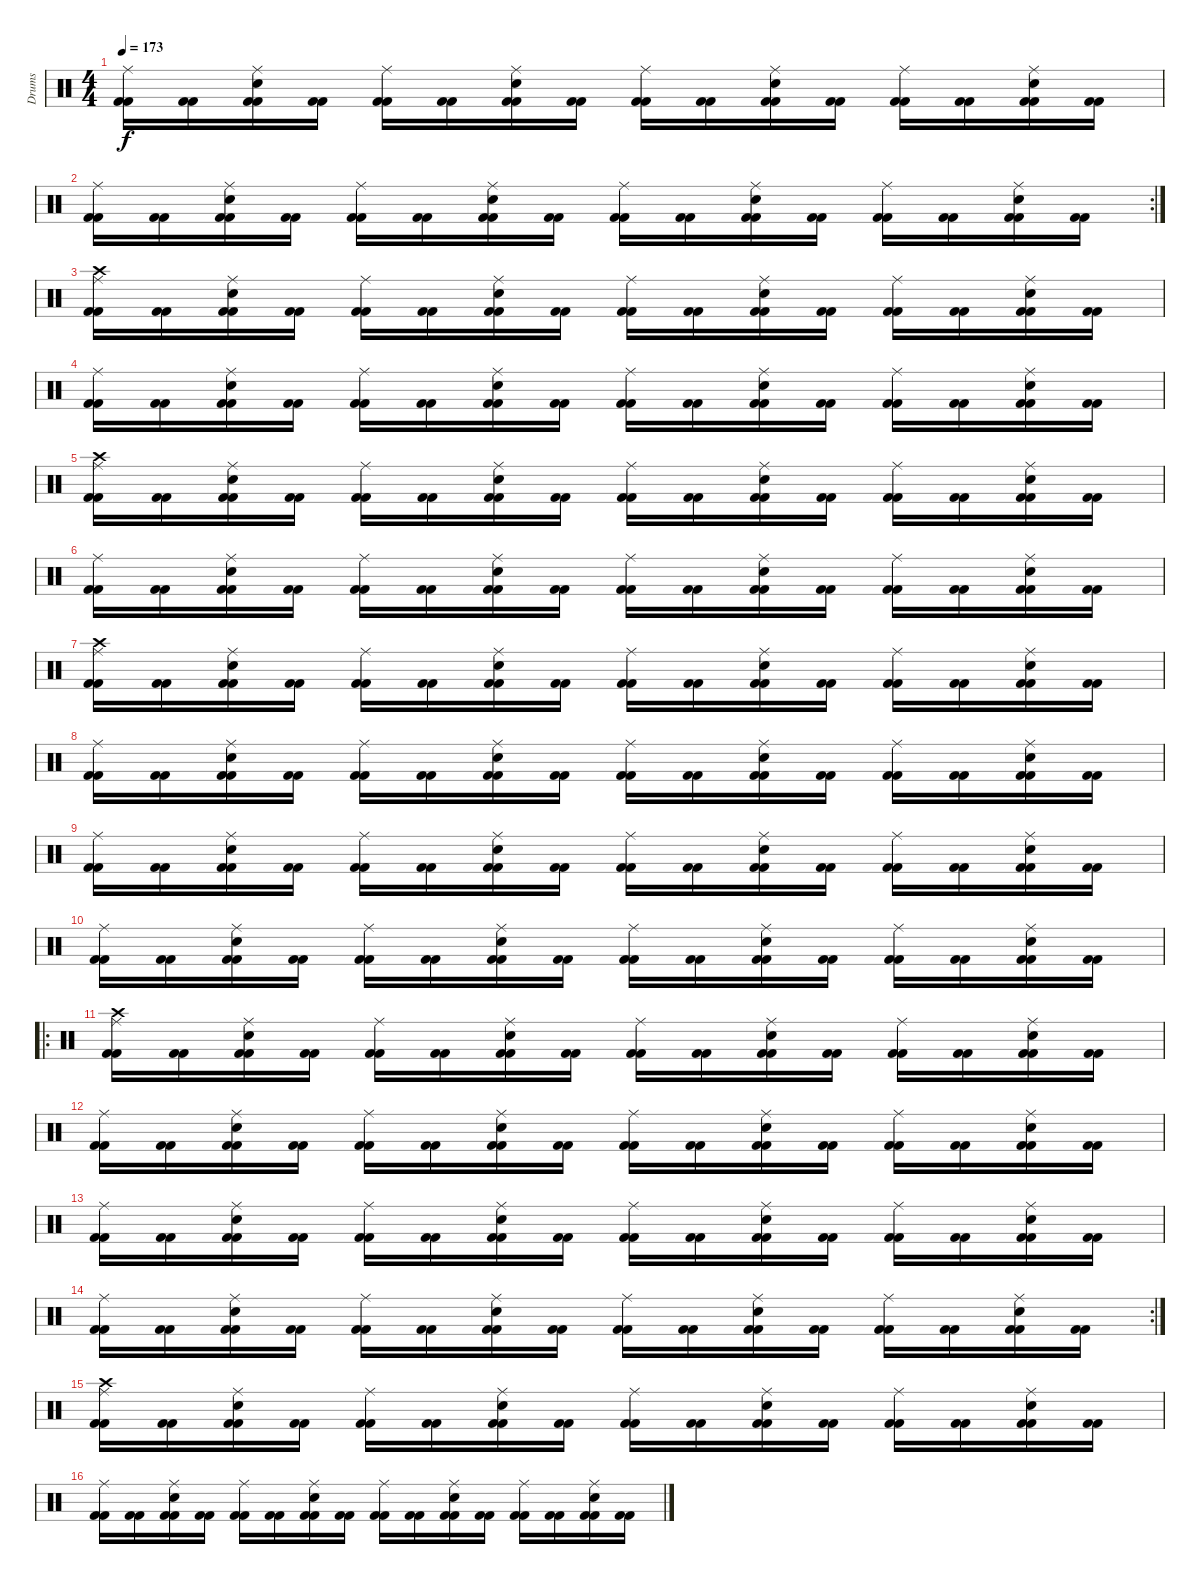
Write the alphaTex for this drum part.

\track ("Drums" "Drums") {instrument percussion}
\staff {score}
\articulation defaults
\ts (4 4)
\tempo 173
\clef neutral
\ks c
("Kick (hit) 2" "Kick (hit) 2" "Ride (middle)").16{dy f} ("Kick (hit) 2" "Kick (hit) 2").16 ("Kick (hit) 2" "Kick (hit) 2" "Ride (middle)" "Electric Snare (hit)").16 ("Kick (hit) 2" "Kick (hit) 2").16 ("Kick (hit) 2" "Kick (hit) 2" "Ride (middle)").16 ("Kick (hit) 2" "Kick (hit) 2").16 ("Kick (hit) 2" "Kick (hit) 2" "Ride (middle)" "Electric Snare (hit)").16 ("Kick (hit) 2" "Kick (hit) 2").16 ("Kick (hit) 2" "Kick (hit) 2" "Ride (middle)").16 ("Kick (hit) 2" "Kick (hit) 2").16 ("Kick (hit) 2" "Kick (hit) 2" "Ride (middle)" "Electric Snare (hit)").16 ("Kick (hit) 2" "Kick (hit) 2").16 ("Kick (hit) 2" "Kick (hit) 2" "Ride (middle)").16 ("Kick (hit) 2" "Kick (hit) 2").16 ("Kick (hit) 2" "Kick (hit) 2" "Ride (middle)" "Electric Snare (hit)").16 ("Kick (hit) 2" "Kick (hit) 2").16 |
\rc 2
("Kick (hit) 2" "Kick (hit) 2" "Ride (middle)").16 ("Kick (hit) 2" "Kick (hit) 2").16 ("Kick (hit) 2" "Kick (hit) 2" "Ride (middle)" "Electric Snare (hit)").16 ("Kick (hit) 2" "Kick (hit) 2").16 ("Kick (hit) 2" "Kick (hit) 2" "Ride (middle)").16 ("Kick (hit) 2" "Kick (hit) 2").16 ("Kick (hit) 2" "Kick (hit) 2" "Ride (middle)" "Electric Snare (hit)").16 ("Kick (hit) 2" "Kick (hit) 2").16 ("Kick (hit) 2" "Kick (hit) 2" "Ride (middle)").16 ("Kick (hit) 2" "Kick (hit) 2").16 ("Kick (hit) 2" "Kick (hit) 2" "Ride (middle)" "Electric Snare (hit)").16 ("Kick (hit) 2" "Kick (hit) 2").16 ("Kick (hit) 2" "Kick (hit) 2" "Ride (middle)").16 ("Kick (hit) 2" "Kick (hit) 2").16 ("Kick (hit) 2" "Kick (hit) 2" "Ride (middle)" "Electric Snare (hit)").16 ("Kick (hit) 2" "Kick (hit) 2").16 |
("Kick (hit) 2" "Kick (hit) 2" "Ride (middle)" "Crash high (hit)").16 ("Kick (hit) 2" "Kick (hit) 2").16 ("Kick (hit) 2" "Kick (hit) 2" "Ride (middle)" "Electric Snare (hit)").16 ("Kick (hit) 2" "Kick (hit) 2").16 ("Kick (hit) 2" "Kick (hit) 2" "Ride (middle)").16 ("Kick (hit) 2" "Kick (hit) 2").16 ("Kick (hit) 2" "Kick (hit) 2" "Ride (middle)" "Electric Snare (hit)").16 ("Kick (hit) 2" "Kick (hit) 2").16 ("Kick (hit) 2" "Kick (hit) 2" "Ride (middle)").16 ("Kick (hit) 2" "Kick (hit) 2").16 ("Kick (hit) 2" "Kick (hit) 2" "Ride (middle)" "Electric Snare (hit)").16 ("Kick (hit) 2" "Kick (hit) 2").16 ("Kick (hit) 2" "Kick (hit) 2" "Ride (middle)").16 ("Kick (hit) 2" "Kick (hit) 2").16 ("Kick (hit) 2" "Kick (hit) 2" "Ride (middle)" "Electric Snare (hit)").16 ("Kick (hit) 2" "Kick (hit) 2").16 |
("Kick (hit) 2" "Kick (hit) 2" "Ride (middle)").16 ("Kick (hit) 2" "Kick (hit) 2").16 ("Kick (hit) 2" "Kick (hit) 2" "Ride (middle)" "Electric Snare (hit)").16 ("Kick (hit) 2" "Kick (hit) 2").16 ("Kick (hit) 2" "Kick (hit) 2" "Ride (middle)").16 ("Kick (hit) 2" "Kick (hit) 2").16 ("Kick (hit) 2" "Kick (hit) 2" "Ride (middle)" "Electric Snare (hit)").16 ("Kick (hit) 2" "Kick (hit) 2").16 ("Kick (hit) 2" "Kick (hit) 2" "Ride (middle)").16 ("Kick (hit) 2" "Kick (hit) 2").16 ("Kick (hit) 2" "Kick (hit) 2" "Ride (middle)" "Electric Snare (hit)").16 ("Kick (hit) 2" "Kick (hit) 2").16 ("Kick (hit) 2" "Kick (hit) 2" "Ride (middle)").16 ("Kick (hit) 2" "Kick (hit) 2").16 ("Kick (hit) 2" "Kick (hit) 2" "Ride (middle)" "Electric Snare (hit)").16 ("Kick (hit) 2" "Kick (hit) 2").16 |
("Kick (hit) 2" "Kick (hit) 2" "Ride (middle)" "Crash high (hit)").16 ("Kick (hit) 2" "Kick (hit) 2").16 ("Kick (hit) 2" "Kick (hit) 2" "Ride (middle)" "Electric Snare (hit)").16 ("Kick (hit) 2" "Kick (hit) 2").16 ("Kick (hit) 2" "Kick (hit) 2" "Ride (middle)").16 ("Kick (hit) 2" "Kick (hit) 2").16 ("Kick (hit) 2" "Kick (hit) 2" "Ride (middle)" "Electric Snare (hit)").16 ("Kick (hit) 2" "Kick (hit) 2").16 ("Kick (hit) 2" "Kick (hit) 2" "Ride (middle)").16 ("Kick (hit) 2" "Kick (hit) 2").16 ("Kick (hit) 2" "Kick (hit) 2" "Ride (middle)" "Electric Snare (hit)").16 ("Kick (hit) 2" "Kick (hit) 2").16 ("Kick (hit) 2" "Kick (hit) 2" "Ride (middle)").16 ("Kick (hit) 2" "Kick (hit) 2").16 ("Kick (hit) 2" "Kick (hit) 2" "Ride (middle)" "Electric Snare (hit)").16 ("Kick (hit) 2" "Kick (hit) 2").16 |
("Kick (hit) 2" "Kick (hit) 2" "Ride (middle)").16 ("Kick (hit) 2" "Kick (hit) 2").16 ("Kick (hit) 2" "Kick (hit) 2" "Ride (middle)" "Electric Snare (hit)").16 ("Kick (hit) 2" "Kick (hit) 2").16 ("Kick (hit) 2" "Kick (hit) 2" "Ride (middle)").16 ("Kick (hit) 2" "Kick (hit) 2").16 ("Kick (hit) 2" "Kick (hit) 2" "Ride (middle)" "Electric Snare (hit)").16 ("Kick (hit) 2" "Kick (hit) 2").16 ("Kick (hit) 2" "Kick (hit) 2" "Ride (middle)").16 ("Kick (hit) 2" "Kick (hit) 2").16 ("Kick (hit) 2" "Kick (hit) 2" "Ride (middle)" "Electric Snare (hit)").16 ("Kick (hit) 2" "Kick (hit) 2").16 ("Kick (hit) 2" "Kick (hit) 2" "Ride (middle)").16 ("Kick (hit) 2" "Kick (hit) 2").16 ("Kick (hit) 2" "Kick (hit) 2" "Ride (middle)" "Electric Snare (hit)").16 ("Kick (hit) 2" "Kick (hit) 2").16 |
("Kick (hit) 2" "Kick (hit) 2" "Ride (middle)" "Crash high (hit)").16 ("Kick (hit) 2" "Kick (hit) 2").16 ("Kick (hit) 2" "Kick (hit) 2" "Ride (middle)" "Electric Snare (hit)").16 ("Kick (hit) 2" "Kick (hit) 2").16 ("Kick (hit) 2" "Kick (hit) 2" "Ride (middle)").16 ("Kick (hit) 2" "Kick (hit) 2").16 ("Kick (hit) 2" "Kick (hit) 2" "Ride (middle)" "Electric Snare (hit)").16 ("Kick (hit) 2" "Kick (hit) 2").16 ("Kick (hit) 2" "Kick (hit) 2" "Ride (middle)").16 ("Kick (hit) 2" "Kick (hit) 2").16 ("Kick (hit) 2" "Kick (hit) 2" "Ride (middle)" "Electric Snare (hit)").16 ("Kick (hit) 2" "Kick (hit) 2").16 ("Kick (hit) 2" "Kick (hit) 2" "Ride (middle)").16 ("Kick (hit) 2" "Kick (hit) 2").16 ("Kick (hit) 2" "Kick (hit) 2" "Ride (middle)" "Electric Snare (hit)").16 ("Kick (hit) 2" "Kick (hit) 2").16 |
("Kick (hit) 2" "Kick (hit) 2" "Ride (middle)").16 ("Kick (hit) 2" "Kick (hit) 2").16 ("Kick (hit) 2" "Kick (hit) 2" "Ride (middle)" "Electric Snare (hit)").16 ("Kick (hit) 2" "Kick (hit) 2").16 ("Kick (hit) 2" "Kick (hit) 2" "Ride (middle)").16 ("Kick (hit) 2" "Kick (hit) 2").16 ("Kick (hit) 2" "Kick (hit) 2" "Ride (middle)" "Electric Snare (hit)").16 ("Kick (hit) 2" "Kick (hit) 2").16 ("Kick (hit) 2" "Kick (hit) 2" "Ride (middle)").16 ("Kick (hit) 2" "Kick (hit) 2").16 ("Kick (hit) 2" "Kick (hit) 2" "Ride (middle)" "Electric Snare (hit)").16 ("Kick (hit) 2" "Kick (hit) 2").16 ("Kick (hit) 2" "Kick (hit) 2" "Ride (middle)").16 ("Kick (hit) 2" "Kick (hit) 2").16 ("Kick (hit) 2" "Kick (hit) 2" "Ride (middle)" "Electric Snare (hit)").16 ("Kick (hit) 2" "Kick (hit) 2").16 |
("Kick (hit) 2" "Kick (hit) 2" "Ride (middle)").16 ("Kick (hit) 2" "Kick (hit) 2").16 ("Kick (hit) 2" "Kick (hit) 2" "Ride (middle)" "Electric Snare (hit)").16 ("Kick (hit) 2" "Kick (hit) 2").16 ("Kick (hit) 2" "Kick (hit) 2" "Ride (middle)").16 ("Kick (hit) 2" "Kick (hit) 2").16 ("Kick (hit) 2" "Kick (hit) 2" "Ride (middle)" "Electric Snare (hit)").16 ("Kick (hit) 2" "Kick (hit) 2").16 ("Kick (hit) 2" "Kick (hit) 2" "Ride (middle)").16 ("Kick (hit) 2" "Kick (hit) 2").16 ("Kick (hit) 2" "Kick (hit) 2" "Ride (middle)" "Electric Snare (hit)").16 ("Kick (hit) 2" "Kick (hit) 2").16 ("Kick (hit) 2" "Kick (hit) 2" "Ride (middle)").16 ("Kick (hit) 2" "Kick (hit) 2").16 ("Kick (hit) 2" "Kick (hit) 2" "Ride (middle)" "Electric Snare (hit)").16 ("Kick (hit) 2" "Kick (hit) 2").16 |
("Kick (hit) 2" "Kick (hit) 2" "Ride (middle)").16 ("Kick (hit) 2" "Kick (hit) 2").16 ("Kick (hit) 2" "Kick (hit) 2" "Ride (middle)" "Electric Snare (hit)").16 ("Kick (hit) 2" "Kick (hit) 2").16 ("Kick (hit) 2" "Kick (hit) 2" "Ride (middle)").16 ("Kick (hit) 2" "Kick (hit) 2").16 ("Kick (hit) 2" "Kick (hit) 2" "Ride (middle)" "Electric Snare (hit)").16 ("Kick (hit) 2" "Kick (hit) 2").16 ("Kick (hit) 2" "Kick (hit) 2" "Ride (middle)").16 ("Kick (hit) 2" "Kick (hit) 2").16 ("Kick (hit) 2" "Kick (hit) 2" "Ride (middle)" "Electric Snare (hit)").16 ("Kick (hit) 2" "Kick (hit) 2").16 ("Kick (hit) 2" "Kick (hit) 2" "Ride (middle)").16 ("Kick (hit) 2" "Kick (hit) 2").16 ("Kick (hit) 2" "Kick (hit) 2" "Ride (middle)" "Electric Snare (hit)").16 ("Kick (hit) 2" "Kick (hit) 2").16 |
\ro
("Kick (hit) 2" "Kick (hit) 2" "Ride (middle)" "Crash high (hit)").16 ("Kick (hit) 2" "Kick (hit) 2").16 ("Kick (hit) 2" "Kick (hit) 2" "Ride (middle)" "Electric Snare (hit)").16 ("Kick (hit) 2" "Kick (hit) 2").16 ("Kick (hit) 2" "Kick (hit) 2" "Ride (middle)").16 ("Kick (hit) 2" "Kick (hit) 2").16 ("Kick (hit) 2" "Kick (hit) 2" "Ride (middle)" "Electric Snare (hit)").16 ("Kick (hit) 2" "Kick (hit) 2").16 ("Kick (hit) 2" "Kick (hit) 2" "Ride (middle)").16 ("Kick (hit) 2" "Kick (hit) 2").16 ("Kick (hit) 2" "Kick (hit) 2" "Ride (middle)" "Electric Snare (hit)").16 ("Kick (hit) 2" "Kick (hit) 2").16 ("Kick (hit) 2" "Kick (hit) 2" "Ride (middle)").16 ("Kick (hit) 2" "Kick (hit) 2").16 ("Kick (hit) 2" "Kick (hit) 2" "Ride (middle)" "Electric Snare (hit)").16 ("Kick (hit) 2" "Kick (hit) 2").16 |
("Kick (hit) 2" "Kick (hit) 2" "Ride (middle)").16 ("Kick (hit) 2" "Kick (hit) 2").16 ("Kick (hit) 2" "Kick (hit) 2" "Ride (middle)" "Electric Snare (hit)").16 ("Kick (hit) 2" "Kick (hit) 2").16 ("Kick (hit) 2" "Kick (hit) 2" "Ride (middle)").16 ("Kick (hit) 2" "Kick (hit) 2").16 ("Kick (hit) 2" "Kick (hit) 2" "Ride (middle)" "Electric Snare (hit)").16 ("Kick (hit) 2" "Kick (hit) 2").16 ("Kick (hit) 2" "Kick (hit) 2" "Ride (middle)").16 ("Kick (hit) 2" "Kick (hit) 2").16 ("Kick (hit) 2" "Kick (hit) 2" "Ride (middle)" "Electric Snare (hit)").16 ("Kick (hit) 2" "Kick (hit) 2").16 ("Kick (hit) 2" "Kick (hit) 2" "Ride (middle)").16 ("Kick (hit) 2" "Kick (hit) 2").16 ("Kick (hit) 2" "Kick (hit) 2" "Ride (middle)" "Electric Snare (hit)").16 ("Kick (hit) 2" "Kick (hit) 2").16 |
("Kick (hit) 2" "Kick (hit) 2" "Ride (middle)").16 ("Kick (hit) 2" "Kick (hit) 2").16 ("Kick (hit) 2" "Kick (hit) 2" "Ride (middle)" "Electric Snare (hit)").16 ("Kick (hit) 2" "Kick (hit) 2").16 ("Kick (hit) 2" "Kick (hit) 2" "Ride (middle)").16 ("Kick (hit) 2" "Kick (hit) 2").16 ("Kick (hit) 2" "Kick (hit) 2" "Ride (middle)" "Electric Snare (hit)").16 ("Kick (hit) 2" "Kick (hit) 2").16 ("Kick (hit) 2" "Kick (hit) 2" "Ride (middle)").16 ("Kick (hit) 2" "Kick (hit) 2").16 ("Kick (hit) 2" "Kick (hit) 2" "Ride (middle)" "Electric Snare (hit)").16 ("Kick (hit) 2" "Kick (hit) 2").16 ("Kick (hit) 2" "Kick (hit) 2" "Ride (middle)").16 ("Kick (hit) 2" "Kick (hit) 2").16 ("Kick (hit) 2" "Kick (hit) 2" "Ride (middle)" "Electric Snare (hit)").16 ("Kick (hit) 2" "Kick (hit) 2").16 |
\rc 2
("Kick (hit) 2" "Kick (hit) 2" "Ride (middle)").16 ("Kick (hit) 2" "Kick (hit) 2").16 ("Kick (hit) 2" "Kick (hit) 2" "Ride (middle)" "Electric Snare (hit)").16 ("Kick (hit) 2" "Kick (hit) 2").16 ("Kick (hit) 2" "Kick (hit) 2" "Ride (middle)").16 ("Kick (hit) 2" "Kick (hit) 2").16 ("Kick (hit) 2" "Kick (hit) 2" "Ride (middle)" "Electric Snare (hit)").16 ("Kick (hit) 2" "Kick (hit) 2").16 ("Kick (hit) 2" "Kick (hit) 2" "Ride (middle)").16 ("Kick (hit) 2" "Kick (hit) 2").16 ("Kick (hit) 2" "Kick (hit) 2" "Ride (middle)" "Electric Snare (hit)").16 ("Kick (hit) 2" "Kick (hit) 2").16 ("Kick (hit) 2" "Kick (hit) 2" "Ride (middle)").16 ("Kick (hit) 2" "Kick (hit) 2").16 ("Kick (hit) 2" "Kick (hit) 2" "Ride (middle)" "Electric Snare (hit)").16 ("Kick (hit) 2" "Kick (hit) 2").16 |
("Kick (hit) 2" "Kick (hit) 2" "Ride (middle)" "Crash high (hit)").16 ("Kick (hit) 2" "Kick (hit) 2").16 ("Kick (hit) 2" "Kick (hit) 2" "Ride (middle)" "Electric Snare (hit)").16 ("Kick (hit) 2" "Kick (hit) 2").16 ("Kick (hit) 2" "Kick (hit) 2" "Ride (middle)").16 ("Kick (hit) 2" "Kick (hit) 2").16 ("Kick (hit) 2" "Kick (hit) 2" "Ride (middle)" "Electric Snare (hit)").16 ("Kick (hit) 2" "Kick (hit) 2").16 ("Kick (hit) 2" "Kick (hit) 2" "Ride (middle)").16 ("Kick (hit) 2" "Kick (hit) 2").16 ("Kick (hit) 2" "Kick (hit) 2" "Ride (middle)" "Electric Snare (hit)").16 ("Kick (hit) 2" "Kick (hit) 2").16 ("Kick (hit) 2" "Kick (hit) 2" "Ride (middle)").16 ("Kick (hit) 2" "Kick (hit) 2").16 ("Kick (hit) 2" "Kick (hit) 2" "Ride (middle)" "Electric Snare (hit)").16 ("Kick (hit) 2" "Kick (hit) 2").16 |
("Kick (hit) 2" "Kick (hit) 2" "Ride (middle)").16 ("Kick (hit) 2" "Kick (hit) 2").16 ("Kick (hit) 2" "Kick (hit) 2" "Ride (middle)" "Electric Snare (hit)").16 ("Kick (hit) 2" "Kick (hit) 2").16 ("Kick (hit) 2" "Kick (hit) 2" "Ride (middle)").16 ("Kick (hit) 2" "Kick (hit) 2").16 ("Kick (hit) 2" "Kick (hit) 2" "Ride (middle)" "Electric Snare (hit)").16 ("Kick (hit) 2" "Kick (hit) 2").16 ("Kick (hit) 2" "Kick (hit) 2" "Ride (middle)").16 ("Kick (hit) 2" "Kick (hit) 2").16 ("Kick (hit) 2" "Kick (hit) 2" "Ride (middle)" "Electric Snare (hit)").16 ("Kick (hit) 2" "Kick (hit) 2").16 ("Kick (hit) 2" "Kick (hit) 2" "Ride (middle)").16 ("Kick (hit) 2" "Kick (hit) 2").16 ("Kick (hit) 2" "Kick (hit) 2" "Ride (middle)" "Electric Snare (hit)").16 ("Kick (hit) 2" "Kick (hit) 2").16
